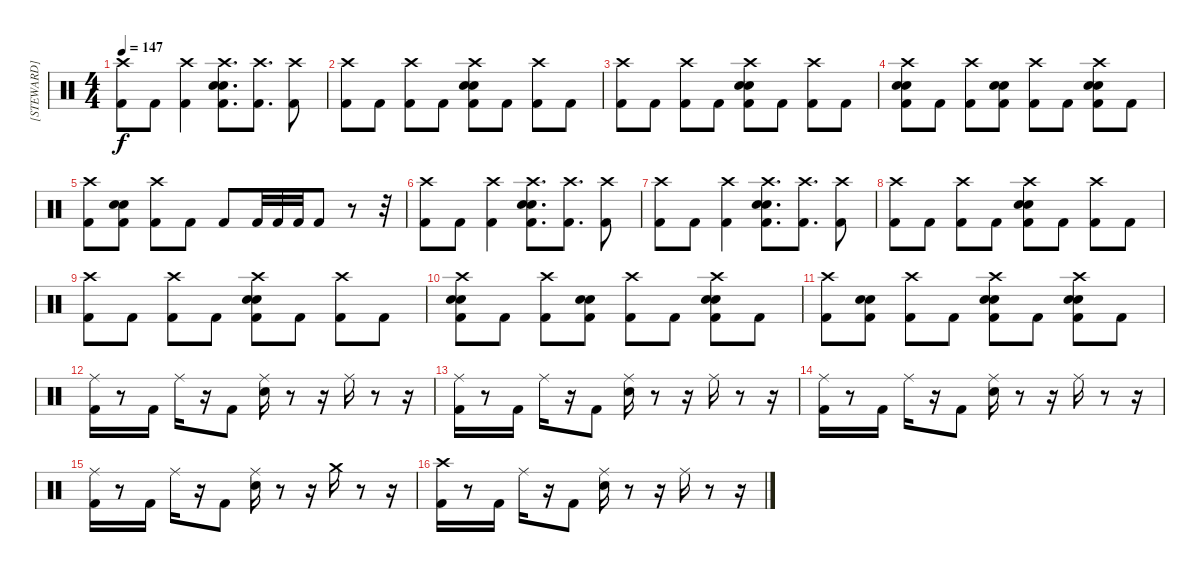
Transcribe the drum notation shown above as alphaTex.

\track ("[STEWARD]" "[STEWARD]") {instrument percussion}
\staff {score}
\articulation defaults
\ts (4 4)
\tempo 147
\clef neutral
\ks c
("Crash high (hit)" "Kick (hit) 2").8{dy f} "Kick (hit) 2".8 ("Crash high (hit)" "Kick (hit) 2").4 ("Crash high (hit)" "Snare (hit) 2" "Electric Snare (hit)" "Kick (hit) 2").8{d} ("Crash high (hit)" "Kick (hit) 2").8{d} ("Crash high (hit)" "Kick (hit) 2").8 |
("Crash high (hit)" "Kick (hit) 2").8 "Kick (hit) 2".8 ("Crash high (hit)" "Kick (hit) 2").8 "Kick (hit) 2".8 ("Crash high (hit)" "Snare (hit) 2" "Electric Snare (hit)" "Kick (hit) 2").8 "Kick (hit) 2".8 ("Crash high (hit)" "Kick (hit) 2").8 "Kick (hit) 2".8 |
("Crash high (hit)" "Kick (hit) 2").8 "Kick (hit) 2".8 ("Crash high (hit)" "Kick (hit) 2").8 "Kick (hit) 2".8 ("Crash high (hit)" "Electric Snare (hit)" "Snare (hit) 2" "Kick (hit) 2").8 "Kick (hit) 2".8 ("Crash high (hit)" "Kick (hit) 2").8 "Kick (hit) 2".8 |
("Crash high (hit)" "Snare (hit) 2" "Electric Snare (hit)" "Kick (hit) 2").8 "Kick (hit) 2".8 ("Crash high (hit)" "Kick (hit) 2").8 ("Snare (hit) 2" "Electric Snare (hit)" "Kick (hit) 2").8 ("Crash high (hit)" "Kick (hit) 2").8 "Kick (hit) 2".8 ("Crash high (hit)" "Snare (hit) 2" "Electric Snare (hit)" "Kick (hit) 2").8 "Kick (hit) 2".8 |
("Crash high (hit)" "Kick (hit) 2").8 ("Snare (hit) 2" "Electric Snare (hit)" "Kick (hit) 2").8 ("Crash high (hit)" "Kick (hit) 2").8 "Kick (hit) 2".8 "Kick (hit) 2".8 "Kick (hit) 2".32 "Kick (hit) 2".32 "Kick (hit) 2".32 "Kick (hit) 2".8 r.8 r.32 |
("Crash high (hit)" "Kick (hit) 2").8 "Kick (hit) 2".8 ("Crash high (hit)" "Kick (hit) 2").4 ("Crash high (hit)" "Electric Snare (hit)" "Snare (hit) 2" "Kick (hit) 2").8{d} ("Crash high (hit)" "Kick (hit) 2").8{d} ("Crash high (hit)" "Kick (hit) 2").8 |
("Crash high (hit)" "Kick (hit) 2").8 "Kick (hit) 2".8 ("Crash high (hit)" "Kick (hit) 2").4 ("Crash high (hit)" "Snare (hit) 2" "Electric Snare (hit)" "Kick (hit) 2").8{d} ("Crash high (hit)" "Kick (hit) 2").8{d} ("Crash high (hit)" "Kick (hit) 2").8 |
("Crash high (hit)" "Kick (hit) 2").8 "Kick (hit) 2".8 ("Crash high (hit)" "Kick (hit) 2").8 "Kick (hit) 2".8 ("Crash high (hit)" "Snare (hit) 2" "Electric Snare (hit)" "Kick (hit) 2").8 "Kick (hit) 2".8 ("Crash high (hit)" "Kick (hit) 2").8 "Kick (hit) 2".8 |
("Crash high (hit)" "Kick (hit) 2").8 "Kick (hit) 2".8 ("Crash high (hit)" "Kick (hit) 2").8 "Kick (hit) 2".8 ("Crash high (hit)" "Electric Snare (hit)" "Snare (hit) 2" "Kick (hit) 2").8 "Kick (hit) 2".8 ("Crash high (hit)" "Kick (hit) 2").8 "Kick (hit) 2".8 |
("Crash high (hit)" "Snare (hit) 2" "Electric Snare (hit)" "Kick (hit) 2").8 "Kick (hit) 2".8 ("Crash high (hit)" "Kick (hit) 2").8 ("Snare (hit) 2" "Electric Snare (hit)" "Kick (hit) 2").8 ("Crash high (hit)" "Kick (hit) 2").8 "Kick (hit) 2".8 ("Crash high (hit)" "Snare (hit) 2" "Electric Snare (hit)" "Kick (hit) 2").8 "Kick (hit) 2".8 |
("Crash high (hit)" "Kick (hit) 2").8 ("Snare (hit) 2" "Electric Snare (hit)" "Kick (hit) 2").8 ("Crash high (hit)" "Kick (hit) 2").8 "Kick (hit) 2".8 ("Crash high (hit)" "Snare (hit) 2" "Electric Snare (hit)" "Kick (hit) 2").8 "Kick (hit) 2".8 ("Crash high (hit)" "Snare (hit) 2" "Electric Snare (hit)" "Kick (hit) 2").8 "Kick (hit) 2".8 |
("Ride (middle)" "Kick (hit) 2").16 r.8 "Kick (hit) 2".16 "Ride (middle)".16 r.16 "Kick (hit) 2".8 ("Ride (middle)" "Snare (hit) 2").16 r.8 r.16 "Ride (middle)".16 r.8 r.16 |
("Ride (middle)" "Kick (hit) 2").16 r.8 "Kick (hit) 2".16 "Ride (middle)".16 r.16 "Kick (hit) 2".8 ("Ride (middle)" "Snare (hit) 2").16 r.8 r.16 "Ride (middle)".16 r.8 r.16 |
("Ride (middle)" "Kick (hit) 2").16 r.8 "Kick (hit) 2".16 "Ride (middle)".16 r.16 "Kick (hit) 2".8 ("Ride (middle)" "Snare (hit) 2").16 r.8 r.16 "Ride (middle)".16 r.8 r.16 |
("Ride (middle)" "Kick (hit) 2").16 r.8 "Kick (hit) 2".16 "Ride (middle)".16 r.16 "Kick (hit) 2".8 ("Ride (middle)" "Snare (hit) 2").16 r.8 r.16 "Crash medium (hit)".16 r.8 r.16 |
("Crash high (hit)" "Kick (hit) 2").16 r.8 "Kick (hit) 2".16 "Ride (middle)".16 r.16 "Kick (hit) 2".8 ("Ride (middle)" "Snare (hit) 2").16 r.8 r.16 "Ride (middle)".16 r.8 r.16
